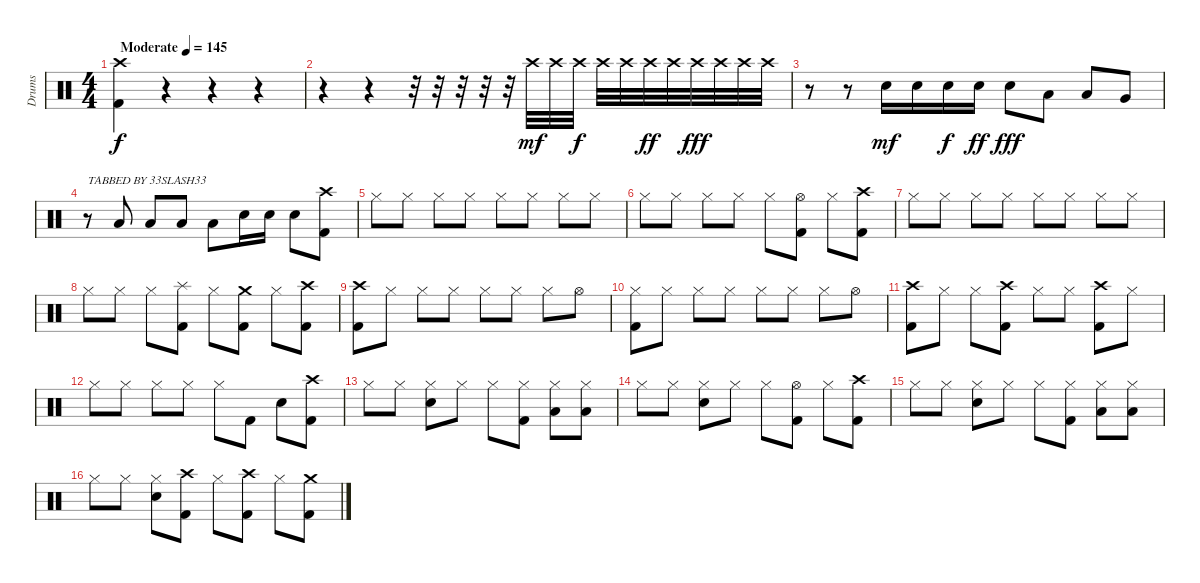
\track ("Drums" "Drums") {instrument percussion}
\staff {score}
\articulation defaults
\ts (4 4)
\tempo (145 "Moderate")
\clef neutral
\ks c
("Crash high (hit)" "Kick (hit) 2").4{dy f} r.4 r.4 r.4 |
r.4 r.4 r.32 r.32 r.32 r.32 r.32 "Crash high (hit)".32{dy mf} "Crash high (hit)".32 "Crash high (hit)".32{dy f} "Crash high (hit)".32 "Crash high (hit)".32 "Crash high (hit)".32{dy ff} "Crash high (hit)".32 "Crash high (hit)".32{dy fff} "Crash high (hit)".32 "Crash high (hit)".32 "Crash high (hit)".32 |
r.8 r.8 "Snare (hit) 2".16{dy mf} "Snare (hit) 2".16 "Snare (hit) 2".16{dy f} "Snare (hit) 2".16{dy ff} "Snare (hit) 2".8{dy fff} "Low Tom (hit)".8 "Low Tom (hit)".8 "Very Low Tom (hit)".8 |
r.8{txt "TABBED BY 33SLASH33"} "Low Floor Tom (hit)".8 "Low Floor Tom (hit)".8 "Low Floor Tom (hit)".8 "Low Floor Tom (hit)".8 "Snare (hit) 2".16 "Snare (hit) 2".16 "Snare (hit) 2".8 ("Crash high (hit)" "Kick (hit) 2").8 |
"Hi-Hat (closed)".8 "Hi-Hat (closed)".8 "Hi-Hat (closed)".8 "Hi-Hat (closed)".8 "Hi-Hat (closed)".8 "Hi-Hat (closed)".8 "Hi-Hat (closed)".8 "Hi-Hat (closed)".8 |
"Hi-Hat (closed)".8 "Hi-Hat (closed)".8 "Hi-Hat (closed)".8 "Hi-Hat (closed)".8 "Hi-Hat (closed)".8 ("Hi-Hat (open)" "Kick (hit) 2").8 "Hi-Hat (closed)".8 ("Crash high (hit)" "Kick (hit) 2").8 |
"Hi-Hat (closed)".8 "Hi-Hat (closed)".8 "Hi-Hat (closed)".8 "Hi-Hat (closed)".8 "Hi-Hat (closed)".8 "Hi-Hat (closed)".8 "Hi-Hat (closed)".8 "Hi-Hat (closed)".8 |
"Hi-Hat (closed)".8 "Hi-Hat (closed)".8 "Hi-Hat (closed)".8 ("Splash (hit)" "Kick (hit) 2").8 "Hi-Hat (closed)".8 ("Crash medium (hit)" "Kick (hit) 2").8 "Hi-Hat (closed)".8 ("Crash high (hit)" "Kick (hit) 2").8 |
("Crash high (hit)" "Kick (hit) 2").8 "Hi-Hat (closed)".8 "Hi-Hat (closed)".8 "Hi-Hat (closed)".8 "Hi-Hat (closed)".8 "Hi-Hat (closed)".8 "Hi-Hat (closed)".8 "Hi-Hat (open)".8 |
("Hi-Hat (closed)" "Kick (hit) 2").8 "Hi-Hat (closed)".8 "Hi-Hat (closed)".8 "Hi-Hat (closed)".8 "Hi-Hat (closed)".8 "Hi-Hat (closed)".8 "Hi-Hat (closed)".8 "Hi-Hat (open)".8 |
("Crash high (hit)" "Kick (hit) 2").8 "Hi-Hat (closed)".8 "Hi-Hat (closed)".8 ("Crash high (hit)" "Kick (hit) 2").8 "Hi-Hat (closed)".8 "Hi-Hat (closed)".8 ("Crash high (hit)" "Kick (hit) 2").8 "Hi-Hat (closed)".8 |
"Hi-Hat (closed)".8 "Hi-Hat (closed)".8 "Hi-Hat (closed)".8 "Hi-Hat (closed)".8 "Hi-Hat (closed)".8 "Kick (hit) 2".8 "Snare (hit) 2".8 ("Crash high (hit)" "Kick (hit) 2").8 |
"Hi-Hat (closed)".8 "Hi-Hat (closed)".8 ("Hi-Hat (closed)" "Snare (hit) 2").8 "Hi-Hat (closed)".8 "Hi-Hat (closed)".8 ("Hi-Hat (closed)" "Kick (hit) 2").8 ("Hi-Hat (closed)" "Low Tom (hit)").8 ("Hi-Hat (closed)" "Low Floor Tom (hit)").8 |
"Hi-Hat (closed)".8 "Hi-Hat (closed)".8 ("Hi-Hat (closed)" "Snare (hit) 2").8 "Hi-Hat (closed)".8 "Hi-Hat (closed)".8 ("Hi-Hat (open)" "Kick (hit) 2").8 "Hi-Hat (closed)".8 ("Crash high (hit)" "Kick (hit) 2").8 |
"Hi-Hat (closed)".8 "Hi-Hat (closed)".8 ("Hi-Hat (closed)" "Snare (hit) 2").8 "Hi-Hat (closed)".8 "Hi-Hat (closed)".8 ("Hi-Hat (closed)" "Kick (hit) 2").8 ("Hi-Hat (closed)" "Low Tom (hit)").8 ("Hi-Hat (closed)" "Low Floor Tom (hit)").8 |
"Hi-Hat (closed)".8 "Hi-Hat (closed)".8 ("Hi-Hat (closed)" "Snare (hit) 2").8 ("Crash high (hit)" "Kick (hit) 2").8 "Hi-Hat (closed)".8 ("Crash high (hit)" "Kick (hit) 2").8 "Hi-Hat (closed)".8 ("Crash medium (hit)" "Kick (hit) 2").8
